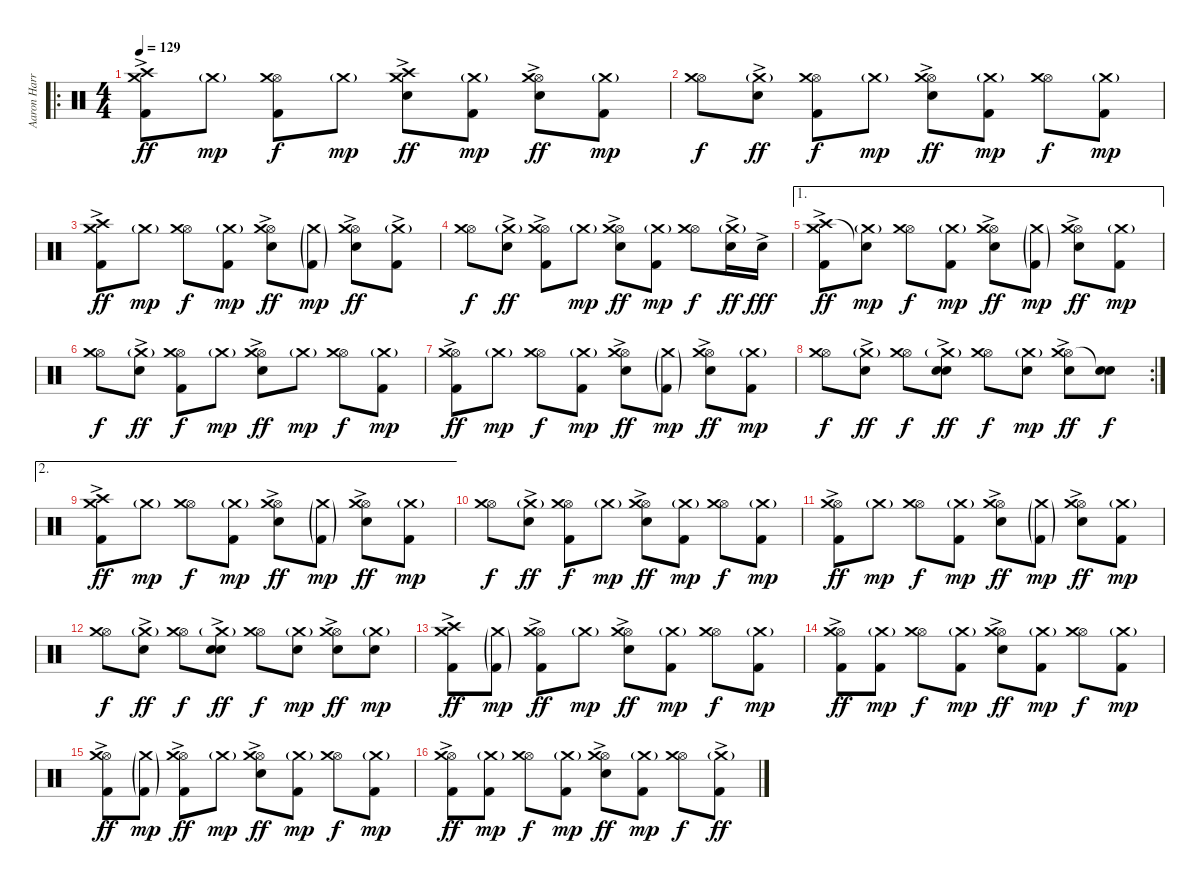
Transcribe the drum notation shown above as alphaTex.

\track ("Aaron Harris" "Aaron Harr") {instrument percussion}
\staff {score}
\articulation defaults
\ro
\ts (4 4)
\tempo 129
\clef neutral
\ks c
("Crash high (hit)" "Crash medium (hit)" "Kick (hit) 2"{ac}).8{dy ff} "Crash medium (hit)"{g}.8{dy mp} ("Hi-Hat (open)" "Crash medium (hit)" "Kick (hit) 2").8{dy f} "Crash medium (hit)"{g}.8{dy mp} ("Crash high (hit)" "Crash medium (hit)" "Snare (hit) 2"{ac}).8{dy ff} ("Crash medium (hit)"{g} "Kick (hit) 2").8{dy mp} ("Hi-Hat (open)" "Crash medium (hit)" "Snare (hit) 2"{ac}).8{dy ff} ("Crash medium (hit)"{g} "Kick (hit) 2").8{dy mp} |
("Hi-Hat (open)" "Crash medium (hit)").8{dy f} ("Crash medium (hit)"{g} "Snare (hit) 2"{ac}).8{dy ff} ("Hi-Hat (open)" "Crash medium (hit)" "Kick (hit) 2").8{dy f} "Crash medium (hit)"{g}.8{dy mp} ("Hi-Hat (open)" "Crash medium (hit)" "Snare (hit) 2"{ac}).8{dy ff} ("Crash medium (hit)"{g} "Kick (hit) 2").8{dy mp} ("Hi-Hat (open)" "Crash medium (hit)").8{dy f} ("Crash medium (hit)"{g} "Kick (hit) 2").8{dy mp} |
("Crash high (hit)" "Crash medium (hit)" "Kick (hit) 2"{ac}).8{dy ff} "Crash medium (hit)"{g}.8{dy mp} ("Hi-Hat (open)" "Crash medium (hit)").8{dy f} ("Crash medium (hit)"{g} "Kick (hit) 2").8{dy mp} ("Hi-Hat (open)" "Crash medium (hit)" "Snare (hit) 2"{ac}).8{dy ff} ("Crash medium (hit)"{g} "Kick (hit) 2"{g}).8{dy mp} ("Hi-Hat (open)" "Crash medium (hit)" "Snare (hit) 2"{ac}).8{dy ff} ("Crash medium (hit)"{g} "Kick (hit) 2"{ac}).8 |
("Hi-Hat (open)" "Crash medium (hit)").8{dy f} ("Crash medium (hit)"{g} "Snare (hit) 2"{ac}).8{dy ff} ("Hi-Hat (open)" "Crash medium (hit)" "Kick (hit) 2"{ac}).8 "Crash medium (hit)"{g}.8{dy mp} ("Hi-Hat (open)" "Crash medium (hit)" "Snare (hit) 2"{ac}).8{dy ff} ("Crash medium (hit)"{g} "Kick (hit) 2").8{dy mp} ("Hi-Hat (open)" "Crash medium (hit)").8{dy f} ("Crash medium (hit)"{g} "Snare (hit) 2"{ac}).16{dy ff} "Snare (hit) 2"{ac}.16{dy fff} |
\ae 1
("Crash high (hit)" "Crash medium (hit)" "Kick (hit) 2"{ac}).8{dy ff} ("Snare (hit)"{t} "Crash medium (hit)"{g}).8{dy mp} ("Hi-Hat (open)" "Crash medium (hit)").8{dy f} ("Crash medium (hit)"{g} "Kick (hit) 2").8{dy mp} ("Hi-Hat (open)" "Crash medium (hit)" "Snare (hit) 2"{ac}).8{dy ff} ("Crash medium (hit)"{g} "Kick (hit) 2"{g}).8{dy mp} ("Hi-Hat (open)" "Crash medium (hit)" "Snare (hit) 2"{ac}).8{dy ff} ("Crash medium (hit)"{g} "Kick (hit) 2").8{dy mp} |
("Hi-Hat (open)" "Crash medium (hit)").8{dy f} ("Crash medium (hit)"{g} "Snare (hit) 2"{ac}).8{dy ff} ("Hi-Hat (open)" "Crash medium (hit)" "Kick (hit) 2").8{dy f} "Crash medium (hit)"{g}.8{dy mp} ("Hi-Hat (open)" "Crash medium (hit)" "Snare (hit) 2"{ac}).8{dy ff} "Crash medium (hit)"{g}.8{dy mp} ("Hi-Hat (open)" "Crash medium (hit)").8{dy f} ("Crash medium (hit)"{g} "Kick (hit) 2").8{dy mp} |
("Hi-Hat (open)" "Crash medium (hit)" "Kick (hit) 2"{ac}).8{dy ff} "Crash medium (hit)"{g}.8{dy mp} ("Hi-Hat (open)" "Crash medium (hit)").8{dy f} ("Crash medium (hit)"{g} "Kick (hit) 2").8{dy mp} ("Hi-Hat (open)" "Crash medium (hit)" "Snare (hit) 2"{ac}).8{dy ff} ("Crash medium (hit)"{g} "Kick (hit) 2"{g}).8{dy mp} ("Hi-Hat (open)" "Crash medium (hit)" "Snare (hit) 2"{ac}).8{dy ff} ("Crash medium (hit)"{g} "Kick (hit) 2").8{dy mp} |
\rc 2
("Hi-Hat (open)" "Crash medium (hit)").8{dy f} ("Crash medium (hit)"{g} "Snare (hit) 2"{ac}).8{dy ff} ("Hi-Hat (open)" "Crash medium (hit)").8{dy f} ("Crash medium (hit)"{g} "Snare (hit) 2"{ac} "Electric Snare (hit)").8{dy ff} ("Hi-Hat (open)" "Crash medium (hit)").8{dy f} ("Crash medium (hit)"{g} "Snare (hit) 2").8{dy mp} ("Hi-Hat (open)" "Crash medium (hit)" "Snare (hit) 2"{ac}).8{dy ff} ("Snare (hit)"{t} "Electric Snare (hit)").8{dy f} |
\ae 2
("Crash high (hit)" "Crash medium (hit)" "Kick (hit) 2"{ac}).8{dy ff} "Crash medium (hit)"{g}.8{dy mp} ("Hi-Hat (open)" "Crash medium (hit)").8{dy f} ("Crash medium (hit)"{g} "Kick (hit) 2").8{dy mp} ("Hi-Hat (open)" "Crash medium (hit)" "Snare (hit) 2"{ac}).8{dy ff} ("Crash medium (hit)"{g} "Kick (hit) 2"{g}).8{dy mp} ("Hi-Hat (open)" "Crash medium (hit)" "Snare (hit) 2"{ac}).8{dy ff} ("Crash medium (hit)"{g} "Kick (hit) 2").8{dy mp} |
("Hi-Hat (open)" "Crash medium (hit)").8{dy f} ("Crash medium (hit)"{g} "Snare (hit) 2"{ac}).8{dy ff} ("Hi-Hat (open)" "Crash medium (hit)" "Kick (hit) 2").8{dy f} "Crash medium (hit)"{g}.8{dy mp} ("Hi-Hat (open)" "Crash medium (hit)" "Snare (hit) 2"{ac}).8{dy ff} ("Crash medium (hit)"{g} "Kick (hit) 2").8{dy mp} ("Hi-Hat (open)" "Crash medium (hit)").8{dy f} ("Crash medium (hit)"{g} "Kick (hit) 2").8{dy mp} |
("Hi-Hat (open)" "Crash medium (hit)" "Kick (hit) 2"{ac}).8{dy ff} "Crash medium (hit)"{g}.8{dy mp} ("Hi-Hat (open)" "Crash medium (hit)").8{dy f} ("Crash medium (hit)"{g} "Kick (hit) 2").8{dy mp} ("Hi-Hat (open)" "Crash medium (hit)" "Snare (hit) 2"{ac}).8{dy ff} ("Crash medium (hit)"{g} "Kick (hit) 2"{g}).8{dy mp} ("Hi-Hat (open)" "Crash medium (hit)" "Snare (hit) 2"{ac}).8{dy ff} ("Crash medium (hit)"{g} "Kick (hit) 2").8{dy mp} |
("Hi-Hat (open)" "Crash medium (hit)").8{dy f} ("Crash medium (hit)"{g} "Snare (hit) 2"{ac}).8{dy ff} ("Hi-Hat (open)" "Crash medium (hit)").8{dy f} ("Crash medium (hit)"{g} "Snare (hit) 2"{ac} "Electric Snare (hit)").8{dy ff} ("Hi-Hat (open)" "Crash medium (hit)").8{dy f} ("Crash medium (hit)"{g} "Snare (hit) 2").8{dy mp} ("Hi-Hat (open)" "Crash medium (hit)" "Snare (hit) 2"{ac}).8{dy ff} ("Crash medium (hit)"{g} "Snare (hit) 2").8{dy mp} |
("Crash high (hit)" "Crash medium (hit)" "Kick (hit) 2"{ac}).8{dy ff} ("Crash medium (hit)"{g} "Kick (hit) 2"{g}).8{dy mp} ("Hi-Hat (open)" "Crash medium (hit)" "Kick (hit) 2"{ac}).8{dy ff} "Crash medium (hit)"{g}.8{dy mp} ("Hi-Hat (open)" "Crash medium (hit)" "Snare (hit) 2"{ac}).8{dy ff} ("Crash medium (hit)"{g} "Kick (hit) 2").8{dy mp} ("Hi-Hat (open)" "Crash medium (hit)").8{dy f} ("Crash medium (hit)"{g} "Kick (hit) 2").8{dy mp} |
("Hi-Hat (open)" "Crash medium (hit)" "Kick (hit) 2"{ac}).8{dy ff} ("Crash medium (hit)"{g} "Kick (hit) 2").8{dy mp} ("Hi-Hat (open)" "Crash medium (hit)").8{dy f} ("Crash medium (hit)"{g} "Kick (hit) 2").8{dy mp} ("Hi-Hat (open)" "Crash medium (hit)" "Snare (hit) 2"{ac}).8{dy ff} ("Crash medium (hit)"{g} "Kick (hit) 2").8{dy mp} ("Hi-Hat (open)" "Crash medium (hit)").8{dy f} ("Crash medium (hit)"{g} "Kick (hit) 2").8{dy mp} |
("Hi-Hat (open)" "Crash medium (hit)" "Kick (hit) 2"{ac}).8{dy ff} ("Crash medium (hit)"{g} "Kick (hit) 2"{g}).8{dy mp} ("Hi-Hat (open)" "Crash medium (hit)" "Kick (hit) 2"{ac}).8{dy ff} "Crash medium (hit)"{g}.8{dy mp} ("Hi-Hat (open)" "Crash medium (hit)" "Snare (hit) 2"{ac}).8{dy ff} ("Crash medium (hit)"{g} "Kick (hit) 2").8{dy mp} ("Hi-Hat (open)" "Crash medium (hit)").8{dy f} ("Crash medium (hit)"{g} "Kick (hit) 2").8{dy mp} |
("Hi-Hat (open)" "Crash medium (hit)" "Kick (hit) 2"{ac}).8{dy ff} ("Crash medium (hit)"{g} "Kick (hit) 2").8{dy mp} ("Hi-Hat (open)" "Crash medium (hit)").8{dy f} ("Crash medium (hit)"{g} "Kick (hit) 2").8{dy mp} ("Hi-Hat (open)" "Crash medium (hit)" "Snare (hit) 2"{ac}).8{dy ff} ("Crash medium (hit)"{g} "Kick (hit) 2").8{dy mp} ("Hi-Hat (open)" "Crash medium (hit)").8{dy f} ("Crash medium (hit)"{g} "Kick (hit) 2"{ac}).8{dy ff}
